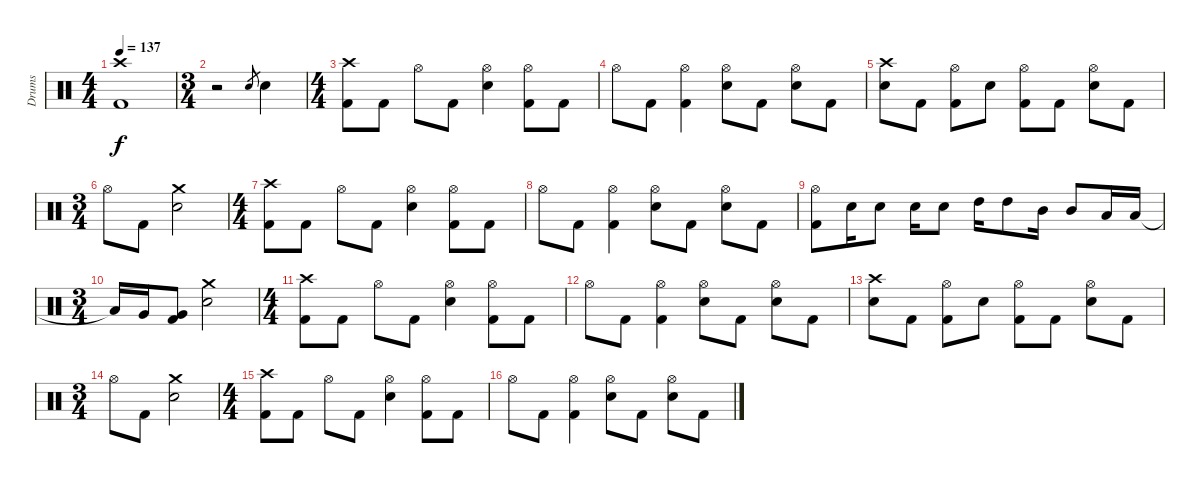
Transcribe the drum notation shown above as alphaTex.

\track ("Drums" "Drums") {instrument percussion}
\staff {score}
\articulation defaults
\ts (4 4)
\tempo 137
\clef neutral
\ks c
("Crash high (hit)" "Kick (hit) 2").1{dy f} |
\ts (3 4)
r.2 "Electric Snare (hit)".8{gr} "Electric Snare (hit)".4 |
\ts (4 4)
("Crash high (hit)" "Kick (hit) 2").8 "Kick (hit) 2".8 "Hi-Hat (open)".8 "Kick (hit) 2".8 ("Hi-Hat (open)" "Electric Snare (hit)").4 ("Hi-Hat (open)" "Kick (hit) 2").8 "Kick (hit) 2".8 |
"Hi-Hat (open)".8 "Kick (hit) 2".8 ("Hi-Hat (open)" "Kick (hit) 2").4 ("Hi-Hat (open)" "Electric Snare (hit)").8 "Kick (hit) 2".8 ("Hi-Hat (open)" "Electric Snare (hit)").8 "Kick (hit) 2".8 |
("Crash high (hit)" "Electric Snare (hit)").8 "Kick (hit) 2".8 ("Hi-Hat (open)" "Kick (hit) 2").8 "Electric Snare (hit)".8 ("Hi-Hat (open)" "Kick (hit) 2").8 "Kick (hit) 2".8 ("Hi-Hat (open)" "Electric Snare (hit)").8 "Kick (hit) 2".8 |
\ts (3 4)
"Hi-Hat (open)".8 "Kick (hit) 2".8 ("Crash medium (hit)" "Electric Snare (hit)").2 |
\ts (4 4)
("Crash high (hit)" "Kick (hit) 2").8 "Kick (hit) 2".8 "Hi-Hat (open)".8 "Kick (hit) 2".8 ("Hi-Hat (open)" "Electric Snare (hit)").4 ("Hi-Hat (open)" "Kick (hit) 2").8 "Kick (hit) 2".8 |
"Hi-Hat (open)".8 "Kick (hit) 2".8 ("Hi-Hat (open)" "Kick (hit) 2").4 ("Hi-Hat (open)" "Electric Snare (hit)").8 "Kick (hit) 2".8 ("Hi-Hat (open)" "Electric Snare (hit)").8 "Kick (hit) 2".8 |
("Hi-Hat (open)" "Kick (hit) 2").8 "Electric Snare (hit)".16 "Electric Snare (hit)".8 "Electric Snare (hit)".16 "Electric Snare (hit)".8 "High Tom (hit)".16 "High Tom (hit)".8 "Mid Tom (hit)".16 "Mid Tom (hit)".8 "Low Tom (hit)".16 "Low Tom (hit)".16 |
\ts (3 4)
"Low Tom (hit)"{t}.16 "Very Low Tom (hit)".16 ("Very Low Tom (hit)" "Kick (hit) 2").8 ("Crash medium (hit)" "Electric Snare (hit)").2 |
\ts (4 4)
("Crash high (hit)" "Kick (hit) 2").8 "Kick (hit) 2".8 "Hi-Hat (open)".8 "Kick (hit) 2".8 ("Hi-Hat (open)" "Electric Snare (hit)").4 ("Hi-Hat (open)" "Kick (hit) 2").8 "Kick (hit) 2".8 |
"Hi-Hat (open)".8 "Kick (hit) 2".8 ("Hi-Hat (open)" "Kick (hit) 2").4 ("Hi-Hat (open)" "Electric Snare (hit)").8 "Kick (hit) 2".8 ("Hi-Hat (open)" "Electric Snare (hit)").8 "Kick (hit) 2".8 |
("Crash high (hit)" "Electric Snare (hit)").8 "Kick (hit) 2".8 ("Hi-Hat (open)" "Kick (hit) 2").8 "Electric Snare (hit)".8 ("Hi-Hat (open)" "Kick (hit) 2").8 "Kick (hit) 2".8 ("Hi-Hat (open)" "Electric Snare (hit)").8 "Kick (hit) 2".8 |
\ts (3 4)
"Hi-Hat (open)".8 "Kick (hit) 2".8 ("Crash medium (hit)" "Electric Snare (hit)").2 |
\ts (4 4)
("Crash high (hit)" "Kick (hit) 2").8 "Kick (hit) 2".8 "Hi-Hat (open)".8 "Kick (hit) 2".8 ("Hi-Hat (open)" "Electric Snare (hit)").4 ("Hi-Hat (open)" "Kick (hit) 2").8 "Kick (hit) 2".8 |
"Hi-Hat (open)".8 "Kick (hit) 2".8 ("Hi-Hat (open)" "Kick (hit) 2").4 ("Hi-Hat (open)" "Electric Snare (hit)").8 "Kick (hit) 2".8 ("Hi-Hat (open)" "Electric Snare (hit)").8 "Kick (hit) 2".8
